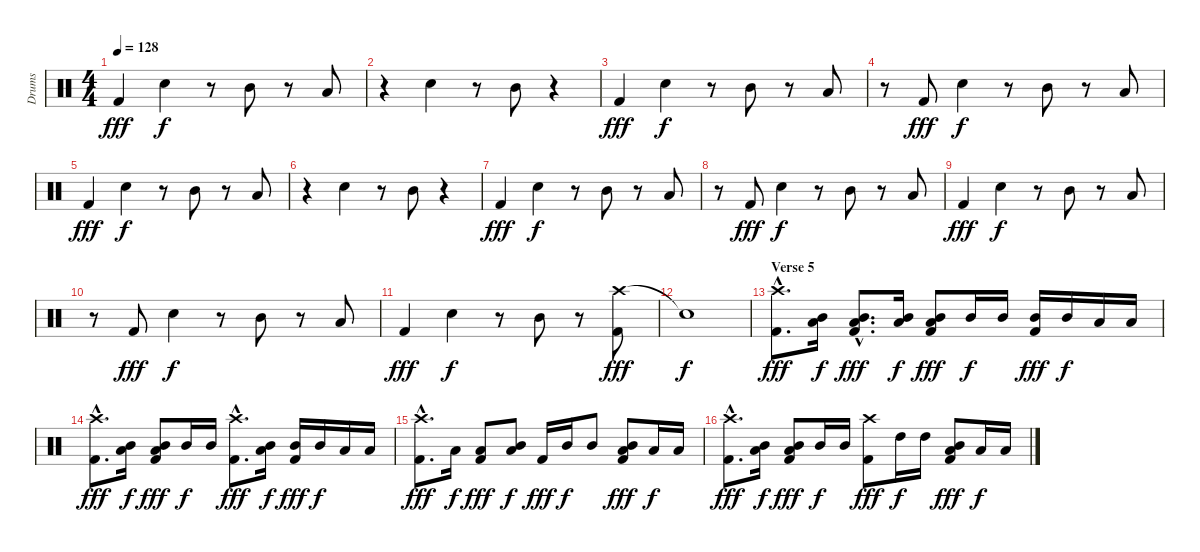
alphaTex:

\track ("Drums" "Drums") {instrument percussion}
\staff {score}
\articulation defaults
\ts (4 4)
\tempo 128
\clef neutral
\ks c "Kick (hit) 2".4{dy fff} "Electric Snare (hit)".4{dy f}
r.8 "Mid Tom (hit)".8 r.8 "Low Tom (hit)".8 |
r.4 "Electric Snare (hit)".4 r.8 "Mid Tom (hit)".8 r.4 |
"Kick (hit) 2".4{dy fff} "Electric Snare (hit)".4{dy f} r.8 "Mid Tom (hit)".8 r.8 "Low Tom (hit)".8 |
r.8 "Kick (hit) 2".8{dy fff} "Electric Snare (hit)".4{dy f} r.8 "Mid Tom (hit)".8 r.8 "Low Tom (hit)".8 |
"Kick (hit) 2".4{dy fff} "Electric Snare (hit)".4{dy f} r.8 "Mid Tom (hit)".8 r.8 "Low Tom (hit)".8 |
r.4 "Electric Snare (hit)".4 r.8 "Mid Tom (hit)".8 r.4 |
"Kick (hit) 2".4{dy fff} "Electric Snare (hit)".4{dy f} r.8 "Mid Tom (hit)".8 r.8 "Low Tom (hit)".8 |
r.8 "Kick (hit) 2".8{dy fff} "Electric Snare (hit)".4{dy f} r.8 "Mid Tom (hit)".8 r.8 "Low Tom (hit)".8 |
"Kick (hit) 2".4{dy fff} "Electric Snare (hit)".4{dy f} r.8 "Mid Tom (hit)".8 r.8 "Low Tom (hit)".8 |
r.8 "Kick (hit) 2".8{dy fff} "Electric Snare (hit)".4{dy f} r.8 "Mid Tom (hit)".8 r.8 "Low Tom (hit)".8 |
"Kick (hit) 2".4{dy fff} "Electric Snare (hit)".4{dy f} r.8 "Mid Tom (hit)".8 r.8 ("Crash high (hit)" "Kick (hit) 2").8{dy fff} |
"Snare (hit)"{t}.1{dy f} |
\section ("" "Verse 5")
("Crash high (hit)"{hac} "Kick (hit) 2"{hac}).8{d dy fff} ("Mid Tom (hit)" "Low Tom (hit)").16{dy f} ("Mid Tom (hit)"{hac} "Low Tom (hit)"{hac} "Kick (hit) 2"{hac}).8{d dy fff} ("Mid Tom (hit)" "Low Tom (hit)").16{dy f} ("Mid Tom (hit)" "Low Tom (hit)" "Kick (hit) 2").8{dy fff} "Mid Tom (hit)".16{dy f} "Mid Tom (hit)".16 ("Mid Tom (hit)" "Kick (hit) 2").16{dy fff} "Mid Tom (hit)".16{dy f} "Low Tom (hit)".16 "Low Tom (hit)".16 |
("Crash high (hit)"{hac} "Kick (hit) 2"{hac}).8{d dy fff} ("Mid Tom (hit)" "Low Tom (hit)").16{dy f} ("Mid Tom (hit)" "Low Tom (hit)" "Kick (hit) 2").8{dy fff} "Mid Tom (hit)".16{dy f} "Mid Tom (hit)".16 ("Crash high (hit)"{hac} "Kick (hit) 2"{hac}).8{d dy fff} ("Mid Tom (hit)" "Low Tom (hit)").16{dy f} ("Mid Tom (hit)" "Kick (hit) 2").16{dy fff} "Mid Tom (hit)".16{dy f} "Low Tom (hit)".16 "Low Tom (hit)".16 |
("Crash high (hit)"{hac} "Kick (hit) 2"{hac}).8{d dy fff} "Low Tom (hit)".16{dy f} ("Low Tom (hit)" "Kick (hit) 2").8{dy fff} ("Mid Tom (hit)" "Low Tom (hit)").8{dy f} "Kick (hit) 2".16{dy fff} "Mid Tom (hit)".16{dy f} "Mid Tom (hit)".8 ("Mid Tom (hit)" "Low Tom (hit)" "Kick (hit) 2").8{dy fff} "Low Tom (hit)".16{dy f} "Low Tom (hit)".16 |
("Crash high (hit)"{hac} "Kick (hit) 2"{hac}).8{d dy fff} ("Mid Tom (hit)" "Low Tom (hit)").16{dy f} ("Mid Tom (hit)" "Low Tom (hit)" "Kick (hit) 2").8{dy fff} "Mid Tom (hit)".16{dy f} "Mid Tom (hit)".16 ("Crash high (hit)" "Kick (hit) 2").8{dy fff} "High Tom (hit)".16{dy f} "High Tom (hit)".16 ("Mid Tom (hit)" "Low Tom (hit)" "Kick (hit) 2").8{dy fff} "Low Tom (hit)".16{dy f} "Low Tom (hit)".16
